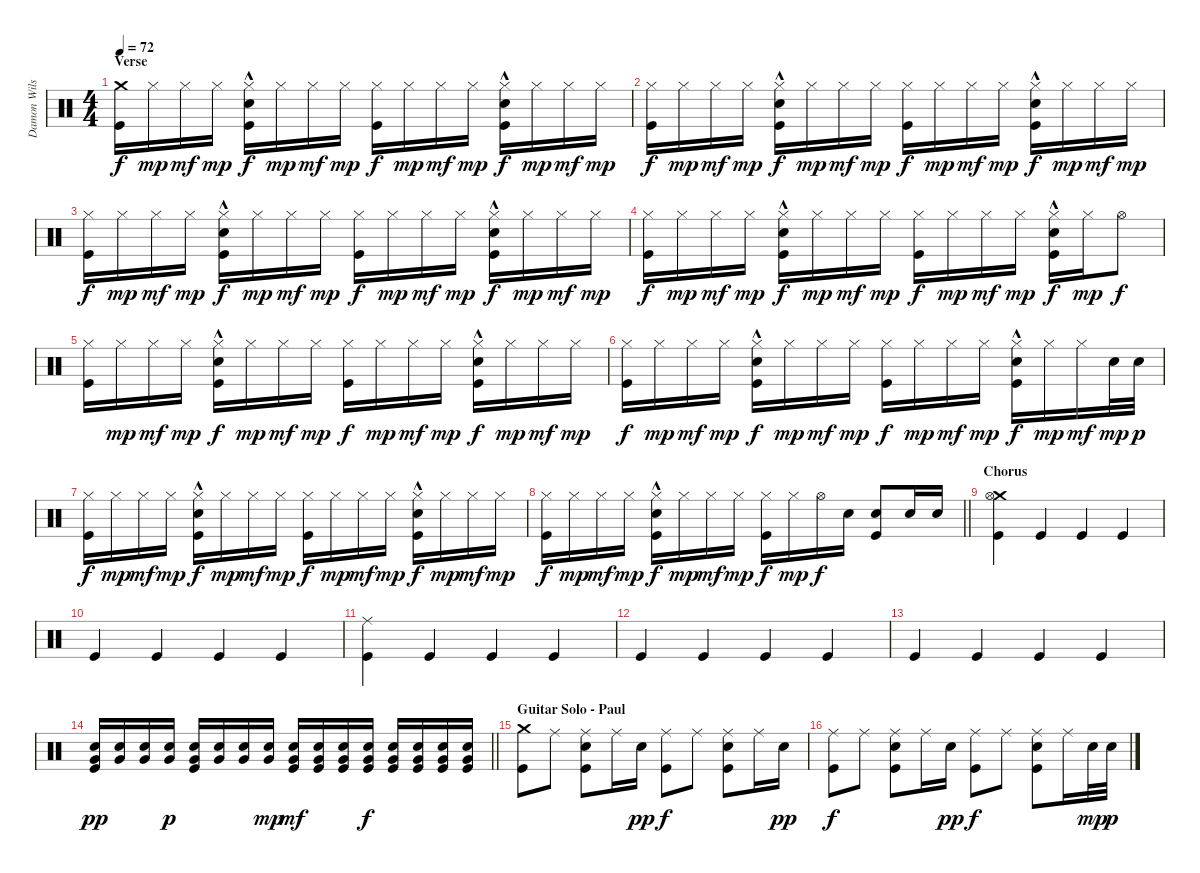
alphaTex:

\track ("Damon Wilson" "Damon Wils") {instrument percussion}
\staff {score}
\articulation defaults
\ts (4 4)
\section ("" "Verse")
\tempo 72
\clef neutral
\ks c
("Crash medium (hit)" "Kick (hit)").16{dy f} "Hi-Hat (closed)".16{dy mp} "Hi-Hat (closed)".16{dy mf} "Hi-Hat (closed)".16{dy mp} ("Hi-Hat (closed)"{hac} "Electric Snare (hit)" "Kick (hit)").16{dy f} "Hi-Hat (closed)".16{dy mp} "Hi-Hat (closed)".16{dy mf} "Hi-Hat (closed)".16{dy mp} ("Hi-Hat (closed)" "Kick (hit)").16{dy f} "Hi-Hat (closed)".16{dy mp} "Hi-Hat (closed)".16{dy mf} "Hi-Hat (closed)".16{dy mp} ("Hi-Hat (closed)"{hac} "Electric Snare (hit)" "Kick (hit)").16{dy f} "Hi-Hat (closed)".16{dy mp} "Hi-Hat (closed)".16{dy mf} "Hi-Hat (closed)".16{dy mp} |
("Hi-Hat (closed)" "Kick (hit)").16{dy f} "Hi-Hat (closed)".16{dy mp} "Hi-Hat (closed)".16{dy mf} "Hi-Hat (closed)".16{dy mp} ("Hi-Hat (closed)"{hac} "Electric Snare (hit)" "Kick (hit)").16{dy f} "Hi-Hat (closed)".16{dy mp} "Hi-Hat (closed)".16{dy mf} "Hi-Hat (closed)".16{dy mp} ("Hi-Hat (closed)" "Kick (hit)").16{dy f} "Hi-Hat (closed)".16{dy mp} "Hi-Hat (closed)".16{dy mf} "Hi-Hat (closed)".16{dy mp} ("Hi-Hat (closed)"{hac} "Electric Snare (hit)" "Kick (hit)").16{dy f} "Hi-Hat (closed)".16{dy mp} "Hi-Hat (closed)".16{dy mf} "Hi-Hat (closed)".16{dy mp} |
("Hi-Hat (closed)" "Kick (hit)").16{dy f} "Hi-Hat (closed)".16{dy mp} "Hi-Hat (closed)".16{dy mf} "Hi-Hat (closed)".16{dy mp} ("Hi-Hat (closed)"{hac} "Electric Snare (hit)" "Kick (hit)").16{dy f} "Hi-Hat (closed)".16{dy mp} "Hi-Hat (closed)".16{dy mf} "Hi-Hat (closed)".16{dy mp} ("Hi-Hat (closed)" "Kick (hit)").16{dy f} "Hi-Hat (closed)".16{dy mp} "Hi-Hat (closed)".16{dy mf} "Hi-Hat (closed)".16{dy mp} ("Hi-Hat (closed)"{hac} "Electric Snare (hit)" "Kick (hit)").16{dy f} "Hi-Hat (closed)".16{dy mp} "Hi-Hat (closed)".16{dy mf} "Hi-Hat (closed)".16{dy mp} |
("Hi-Hat (closed)" "Kick (hit)").16{dy f} "Hi-Hat (closed)".16{dy mp} "Hi-Hat (closed)".16{dy mf} "Hi-Hat (closed)".16{dy mp} ("Hi-Hat (closed)"{hac} "Electric Snare (hit)" "Kick (hit)").16{dy f} "Hi-Hat (closed)".16{dy mp} "Hi-Hat (closed)".16{dy mf} "Hi-Hat (closed)".16{dy mp} ("Hi-Hat (closed)" "Kick (hit)").16{dy f} "Hi-Hat (closed)".16{dy mp} "Hi-Hat (closed)".16{dy mf} "Hi-Hat (closed)".16{dy mp} ("Hi-Hat (closed)"{hac} "Electric Snare (hit)" "Kick (hit)").16{dy f} "Hi-Hat (closed)".16{dy mp} "Hi-Hat (open)".8{dy f} |
("Hi-Hat (closed)" "Kick (hit)").16 "Hi-Hat (closed)".16{dy mp} "Hi-Hat (closed)".16{dy mf} "Hi-Hat (closed)".16{dy mp} ("Hi-Hat (closed)"{hac} "Electric Snare (hit)" "Kick (hit)").16{dy f} "Hi-Hat (closed)".16{dy mp} "Hi-Hat (closed)".16{dy mf} "Hi-Hat (closed)".16{dy mp} ("Hi-Hat (closed)" "Kick (hit)").16{dy f} "Hi-Hat (closed)".16{dy mp} "Hi-Hat (closed)".16{dy mf} "Hi-Hat (closed)".16{dy mp} ("Hi-Hat (closed)"{hac} "Electric Snare (hit)" "Kick (hit)").16{dy f} "Hi-Hat (closed)".16{dy mp} "Hi-Hat (closed)".16{dy mf} "Hi-Hat (closed)".16{dy mp} |
("Hi-Hat (closed)" "Kick (hit)").16{dy f} "Hi-Hat (closed)".16{dy mp} "Hi-Hat (closed)".16{dy mf} "Hi-Hat (closed)".16{dy mp} ("Hi-Hat (closed)"{hac} "Electric Snare (hit)" "Kick (hit)").16{dy f} "Hi-Hat (closed)".16{dy mp} "Hi-Hat (closed)".16{dy mf} "Hi-Hat (closed)".16{dy mp} ("Hi-Hat (closed)" "Kick (hit)").16{dy f} "Hi-Hat (closed)".16{dy mp} "Hi-Hat (closed)".16{dy mf} "Hi-Hat (closed)".16{dy mp} ("Hi-Hat (closed)"{hac} "Electric Snare (hit)" "Kick (hit)").16{dy f} "Hi-Hat (closed)".16{dy mp} "Hi-Hat (closed)".16{dy mf} "Electric Snare (hit)".32{dy mp} "Electric Snare (hit)".32{dy p} |
("Hi-Hat (closed)" "Kick (hit)").16{dy f} "Hi-Hat (closed)".16{dy mp} "Hi-Hat (closed)".16{dy mf} "Hi-Hat (closed)".16{dy mp} ("Hi-Hat (closed)"{hac} "Electric Snare (hit)" "Kick (hit)").16{dy f} "Hi-Hat (closed)".16{dy mp} "Hi-Hat (closed)".16{dy mf} "Hi-Hat (closed)".16{dy mp} ("Hi-Hat (closed)" "Kick (hit)").16{dy f} "Hi-Hat (closed)".16{dy mp} "Hi-Hat (closed)".16{dy mf} "Hi-Hat (closed)".16{dy mp} ("Hi-Hat (closed)"{hac} "Electric Snare (hit)" "Kick (hit)").16{dy f} "Hi-Hat (closed)".16{dy mp} "Hi-Hat (closed)".16{dy mf} "Hi-Hat (closed)".16{dy mp} |
\barLineRight lightlight
("Hi-Hat (closed)" "Kick (hit)").16{dy f} "Hi-Hat (closed)".16{dy mp} "Hi-Hat (closed)".16{dy mf} "Hi-Hat (closed)".16{dy mp} ("Hi-Hat (closed)"{hac} "Electric Snare (hit)" "Kick (hit)").16{dy f} "Hi-Hat (closed)".16{dy mp} "Hi-Hat (closed)".16{dy mf} "Hi-Hat (closed)".16{dy mp} ("Hi-Hat (closed)" "Kick (hit)").16{dy f} "Hi-Hat (closed)".16{dy mp} "Hi-Hat (open)".16{dy f} "Electric Snare (hit)".16 ("Electric Snare (hit)" "Kick (hit)").8 "Electric Snare (hit)".16 "Electric Snare (hit)".16 |
\section ("" "Chorus")
("Crash medium (hit)" "Hi-Hat (open)" "Kick (hit)").4 "Kick (hit)".4 "Kick (hit)".4 "Kick (hit)".4 |
"Kick (hit)".4 "Kick (hit)".4 "Kick (hit)".4 "Kick (hit)".4 |
("Ride (middle)" "Kick (hit)").4 "Kick (hit)".4 "Kick (hit)".4 "Kick (hit)".4 |
"Kick (hit)".4 "Kick (hit)".4 "Kick (hit)".4 "Kick (hit)".4 |
"Kick (hit)".4 "Kick (hit)".4 "Kick (hit)".4 "Kick (hit)".4 |
\barLineRight lightlight
("Very Low Tom (hit)" "Electric Snare (hit)" "Kick (hit)").16{dy pp} ("Very Low Tom (hit)" "Electric Snare (hit)").16 ("Very Low Tom (hit)" "Electric Snare (hit)").16 ("Very Low Tom (hit)" "Electric Snare (hit)").16{dy p} ("Very Low Tom (hit)" "Electric Snare (hit)" "Kick (hit)").16 ("Very Low Tom (hit)" "Electric Snare (hit)").16 ("Very Low Tom (hit)" "Electric Snare (hit)").16 ("Very Low Tom (hit)" "Electric Snare (hit)").16{dy mp} ("Very Low Tom (hit)" "Electric Snare (hit)" "Kick (hit)").16{dy mf} ("Very Low Tom (hit)" "Electric Snare (hit)" "Kick (hit)").16 ("Very Low Tom (hit)" "Electric Snare (hit)" "Kick (hit)").16 ("Very Low Tom (hit)" "Electric Snare (hit)" "Kick (hit)").16{dy f} ("Very Low Tom (hit)" "Electric Snare (hit)" "Kick (hit)").16 ("Very Low Tom (hit)" "Electric Snare (hit)" "Kick (hit)").16 ("Very Low Tom (hit)" "Electric Snare (hit)" "Kick (hit)").16 ("Very Low Tom (hit)" "Electric Snare (hit)" "Kick (hit)").16 |
\section ("" "Guitar Solo - Paul")
("Crash medium (hit)" "Kick (hit)").8 "Ride (middle)".8 ("Ride (middle)" "Electric Snare (hit)" "Kick (hit)").8 "Ride (middle)".16 "Electric Snare (hit)".16{dy pp} ("Ride (middle)" "Kick (hit)").8{dy f} "Ride (middle)".8 ("Ride (middle)" "Electric Snare (hit)" "Kick (hit)").8 "Ride (middle)".16 "Electric Snare (hit)".16{dy pp} |
("Ride (middle)" "Kick (hit)").8{dy f} "Ride (middle)".8 ("Ride (middle)" "Electric Snare (hit)" "Kick (hit)").8 "Ride (middle)".16 "Electric Snare (hit)".16{dy pp} ("Ride (middle)" "Kick (hit)").8{dy f} "Ride (middle)".8 ("Ride (middle)" "Electric Snare (hit)" "Kick (hit)").8 "Ride (middle)".16 "Electric Snare (hit)".32{dy mp} "Electric Snare (hit)".32{dy p}
